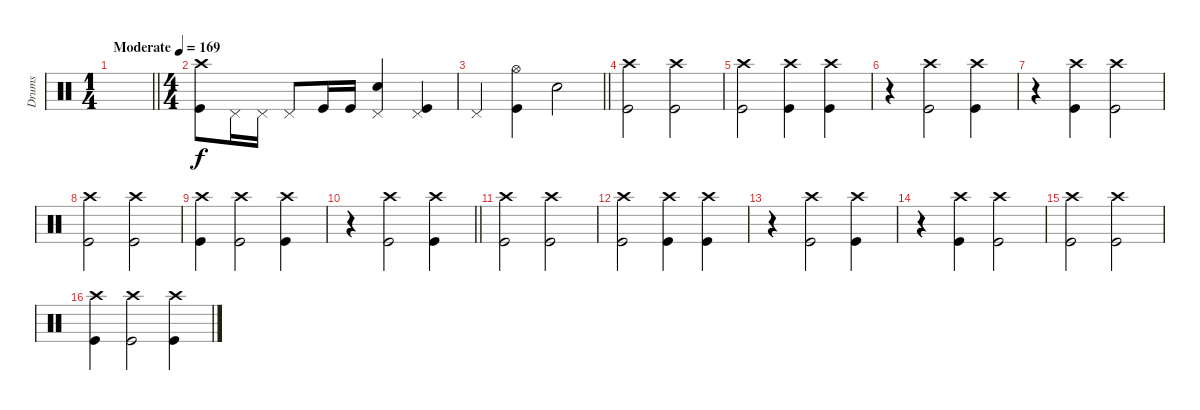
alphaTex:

\track ("Drums" "Drums") {instrument percussion}
\staff
\articulation defaults
\ts (1 4)
\tempo (169 "Moderate")
\clef neutral
\barLineRight lightlight
\ks c
|
\ts (4 4)
("Crash high (hit)" "Kick (hit)").8 "Pedal Hi-Hat (hit)".16 "Pedal Hi-Hat (hit)".16 "Pedal Hi-Hat (hit)".8 "Kick (hit)".16 "Kick (hit)".16 ("Pedal Hi-Hat (hit)" "Electric Snare (hit)").4 ("Pedal Hi-Hat (hit)" "Kick (hit)").4 |
\barLineRight lightlight "Pedal Hi-Hat (hit)".4
("Hi-Hat (open)" "Kick (hit)").4 "Electric Snare (hit)".2 |
("Crash high (hit)" "Kick (hit)").2 ("Crash high (hit)" "Kick (hit)").2 |
("Crash high (hit)" "Kick (hit)").2 ("Crash high (hit)" "Kick (hit)").4 ("Crash high (hit)" "Kick (hit)").4 |
r.4 ("Crash high (hit)" "Kick (hit)").2 ("Crash high (hit)" "Kick (hit)").4 |
r.4 ("Crash high (hit)" "Kick (hit)").4 ("Crash high (hit)" "Kick (hit)").2 |
("Crash high (hit)" "Kick (hit)").2 ("Crash high (hit)" "Kick (hit)").2 |
("Crash high (hit)" "Kick (hit)").4 ("Crash high (hit)" "Kick (hit)").2 ("Crash high (hit)" "Kick (hit)").4 |
\barLineRight lightlight
r.4 ("Crash high (hit)" "Kick (hit)").2 ("Crash high (hit)" "Kick (hit)").4 |
("Crash high (hit)" "Kick (hit)").2 ("Crash high (hit)" "Kick (hit)").2 |
("Crash high (hit)" "Kick (hit)").2 ("Crash high (hit)" "Kick (hit)").4 ("Crash high (hit)" "Kick (hit)").4 |
r.4 ("Crash high (hit)" "Kick (hit)").2 ("Crash high (hit)" "Kick (hit)").4 |
r.4 ("Crash high (hit)" "Kick (hit)").4 ("Crash high (hit)" "Kick (hit)").2 |
("Crash high (hit)" "Kick (hit)").2 ("Crash high (hit)" "Kick (hit)").2 |
("Crash high (hit)" "Kick (hit)").4 ("Crash high (hit)" "Kick (hit)").2 ("Crash high (hit)" "Kick (hit)").4
